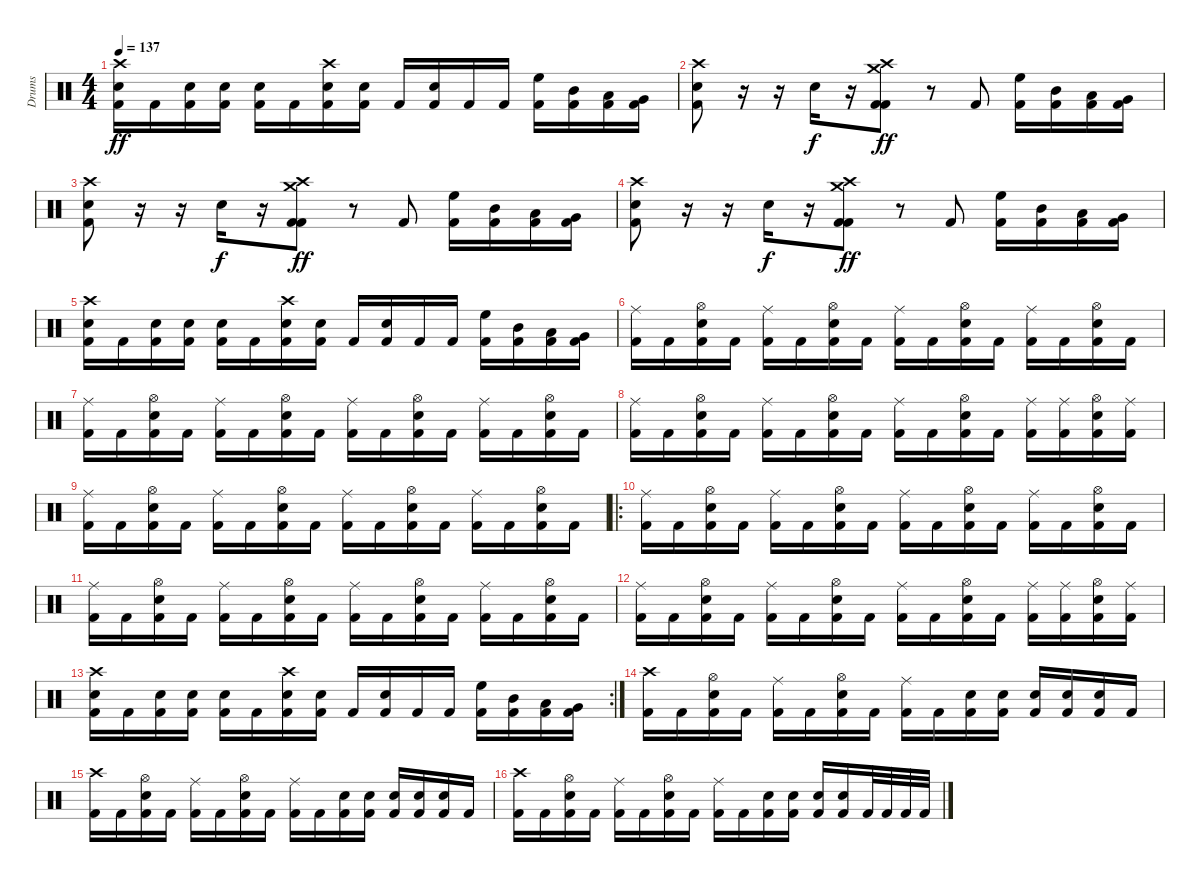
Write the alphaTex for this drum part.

\track ("Drums" "Drums") {instrument percussion}
\staff {score}
\articulation defaults
\ts (4 4)
\tempo 137
\clef neutral
\ks c
("Crash high (hit)" "Electric Snare (hit)" "Kick (hit) 2").16{dy ff} "Kick (hit) 2".16 ("Electric Snare (hit)" "Kick (hit) 2").16 ("Electric Snare (hit)" "Kick (hit) 2").16 ("Electric Snare (hit)" "Kick (hit) 2").16 "Kick (hit) 2".16 ("Crash high (hit)" "Electric Snare (hit)" "Kick (hit) 2").16 ("Electric Snare (hit)" "Kick (hit) 2").16 "Kick (hit) 2".16 ("Electric Snare (hit)" "Kick (hit) 2").16 "Kick (hit) 2".16 "Kick (hit) 2".16 ("High Floor Tom (hit)" "Kick (hit) 2").16 ("Mid Tom (hit)" "Kick (hit) 2").16 ("Low Tom (hit)" "Kick (hit) 2").16 ("Very Low Tom (hit)" "Kick (hit) 2").16 |
("Crash high (hit)" "Electric Snare (hit)" "Kick (hit) 2").8 r.16 r.16 "Electric Snare (hit)".16{dy f} r.16 ("Crash medium (hit)" "Crash high (hit)" "Kick (hit) 2" "Kick (hit) 2").8{dy ff} r.8 "Kick (hit) 2".8 ("High Floor Tom (hit)" "Kick (hit) 2").16 ("Mid Tom (hit)" "Kick (hit) 2").16 ("Low Tom (hit)" "Kick (hit) 2").16 ("Very Low Tom (hit)" "Kick (hit) 2").16 |
("Crash high (hit)" "Electric Snare (hit)" "Kick (hit) 2").8 r.16 r.16 "Electric Snare (hit)".16{dy f} r.16 ("Crash medium (hit)" "Crash high (hit)" "Kick (hit) 2" "Kick (hit) 2").8{dy ff} r.8 "Kick (hit) 2".8 ("High Floor Tom (hit)" "Kick (hit) 2").16 ("Mid Tom (hit)" "Kick (hit) 2").16 ("Low Tom (hit)" "Kick (hit) 2").16 ("Very Low Tom (hit)" "Kick (hit) 2").16 |
("Crash high (hit)" "Electric Snare (hit)" "Kick (hit) 2").8 r.16 r.16 "Electric Snare (hit)".16{dy f} r.16 ("Crash medium (hit)" "Crash high (hit)" "Kick (hit) 2" "Kick (hit) 2").8{dy ff} r.8 "Kick (hit) 2".8 ("High Floor Tom (hit)" "Kick (hit) 2").16 ("Mid Tom (hit)" "Kick (hit) 2").16 ("Low Tom (hit)" "Kick (hit) 2").16 ("Very Low Tom (hit)" "Kick (hit) 2").16 |
("Crash high (hit)" "Electric Snare (hit)" "Kick (hit) 2").16 "Kick (hit) 2".16 ("Electric Snare (hit)" "Kick (hit) 2").16 ("Electric Snare (hit)" "Kick (hit) 2").16 ("Electric Snare (hit)" "Kick (hit) 2").16 "Kick (hit) 2".16 ("Crash high (hit)" "Electric Snare (hit)" "Kick (hit) 2").16 ("Electric Snare (hit)" "Kick (hit) 2").16 "Kick (hit) 2".16 ("Electric Snare (hit)" "Kick (hit) 2").16 "Kick (hit) 2".16 "Kick (hit) 2".16 ("High Floor Tom (hit)" "Kick (hit) 2").16 ("Mid Tom (hit)" "Kick (hit) 2").16 ("Low Tom (hit)" "Kick (hit) 2").16 ("Very Low Tom (hit)" "Kick (hit) 2").16 |
("Ride (middle)" "Kick (hit) 2").16 "Kick (hit) 2".16 ("Hi-Hat (open)" "Electric Snare (hit)" "Kick (hit) 2").16 "Kick (hit) 2".16 ("Ride (middle)" "Kick (hit) 2").16 "Kick (hit) 2".16 ("Hi-Hat (open)" "Electric Snare (hit)" "Kick (hit) 2").16 "Kick (hit) 2".16 ("Ride (middle)" "Kick (hit) 2").16 "Kick (hit) 2".16 ("Hi-Hat (open)" "Electric Snare (hit)" "Kick (hit) 2").16 "Kick (hit) 2".16 ("Ride (middle)" "Kick (hit) 2").16 "Kick (hit) 2".16 ("Hi-Hat (open)" "Electric Snare (hit)" "Kick (hit) 2").16 "Kick (hit) 2".16 |
("Ride (middle)" "Kick (hit) 2").16 "Kick (hit) 2".16 ("Hi-Hat (open)" "Electric Snare (hit)" "Kick (hit) 2").16 "Kick (hit) 2".16 ("Ride (middle)" "Kick (hit) 2").16 "Kick (hit) 2".16 ("Hi-Hat (open)" "Electric Snare (hit)" "Kick (hit) 2").16 "Kick (hit) 2".16 ("Ride (middle)" "Kick (hit) 2").16 "Kick (hit) 2".16 ("Hi-Hat (open)" "Electric Snare (hit)" "Kick (hit) 2").16 "Kick (hit) 2".16 ("Ride (middle)" "Kick (hit) 2").16 "Kick (hit) 2".16 ("Hi-Hat (open)" "Electric Snare (hit)" "Kick (hit) 2").16 "Kick (hit) 2".16 |
("Ride (middle)" "Kick (hit) 2").16 "Kick (hit) 2".16 ("Hi-Hat (open)" "Electric Snare (hit)" "Kick (hit) 2").16 "Kick (hit) 2".16 ("Ride (middle)" "Kick (hit) 2").16 "Kick (hit) 2".16 ("Hi-Hat (open)" "Electric Snare (hit)" "Kick (hit) 2").16 "Kick (hit) 2".16 ("Ride (middle)" "Kick (hit) 2").16 "Kick (hit) 2".16 ("Hi-Hat (open)" "Electric Snare (hit)" "Kick (hit) 2").16 "Kick (hit) 2".16 ("Ride (middle)" "Kick (hit) 2").16 ("Ride (middle)" "Kick (hit) 2").16 ("Hi-Hat (open)" "Electric Snare (hit)" "Kick (hit) 2").16 ("Ride (middle)" "Kick (hit) 2").16 |
("Ride (middle)" "Kick (hit) 2").16 "Kick (hit) 2".16 ("Hi-Hat (open)" "Electric Snare (hit)" "Kick (hit) 2").16 "Kick (hit) 2".16 ("Ride (middle)" "Kick (hit) 2").16 "Kick (hit) 2".16 ("Hi-Hat (open)" "Electric Snare (hit)" "Kick (hit) 2").16 "Kick (hit) 2".16 ("Ride (middle)" "Kick (hit) 2").16 "Kick (hit) 2".16 ("Hi-Hat (open)" "Electric Snare (hit)" "Kick (hit) 2").16 "Kick (hit) 2".16 ("Ride (middle)" "Kick (hit) 2").16 "Kick (hit) 2".16 ("Hi-Hat (open)" "Electric Snare (hit)" "Kick (hit) 2").16 "Kick (hit) 2".16 |
\ro
("Ride (middle)" "Kick (hit) 2").16 "Kick (hit) 2".16 ("Hi-Hat (open)" "Electric Snare (hit)" "Kick (hit) 2").16 "Kick (hit) 2".16 ("Ride (middle)" "Kick (hit) 2").16 "Kick (hit) 2".16 ("Hi-Hat (open)" "Electric Snare (hit)" "Kick (hit) 2").16 "Kick (hit) 2".16 ("Ride (middle)" "Kick (hit) 2").16 "Kick (hit) 2".16 ("Hi-Hat (open)" "Electric Snare (hit)" "Kick (hit) 2").16 "Kick (hit) 2".16 ("Ride (middle)" "Kick (hit) 2").16 "Kick (hit) 2".16 ("Hi-Hat (open)" "Electric Snare (hit)" "Kick (hit) 2").16 "Kick (hit) 2".16 |
("Ride (middle)" "Kick (hit) 2").16 "Kick (hit) 2".16 ("Hi-Hat (open)" "Electric Snare (hit)" "Kick (hit) 2").16 "Kick (hit) 2".16 ("Ride (middle)" "Kick (hit) 2").16 "Kick (hit) 2".16 ("Hi-Hat (open)" "Electric Snare (hit)" "Kick (hit) 2").16 "Kick (hit) 2".16 ("Ride (middle)" "Kick (hit) 2").16 "Kick (hit) 2".16 ("Hi-Hat (open)" "Electric Snare (hit)" "Kick (hit) 2").16 "Kick (hit) 2".16 ("Ride (middle)" "Kick (hit) 2").16 "Kick (hit) 2".16 ("Hi-Hat (open)" "Electric Snare (hit)" "Kick (hit) 2").16 "Kick (hit) 2".16 |
("Ride (middle)" "Kick (hit) 2").16 "Kick (hit) 2".16 ("Hi-Hat (open)" "Electric Snare (hit)" "Kick (hit) 2").16 "Kick (hit) 2".16 ("Ride (middle)" "Kick (hit) 2").16 "Kick (hit) 2".16 ("Hi-Hat (open)" "Electric Snare (hit)" "Kick (hit) 2").16 "Kick (hit) 2".16 ("Ride (middle)" "Kick (hit) 2").16 "Kick (hit) 2".16 ("Hi-Hat (open)" "Electric Snare (hit)" "Kick (hit) 2").16 "Kick (hit) 2".16 ("Ride (middle)" "Kick (hit) 2").16 ("Ride (middle)" "Kick (hit) 2").16 ("Hi-Hat (open)" "Electric Snare (hit)" "Kick (hit) 2").16 ("Ride (middle)" "Kick (hit) 2").16 |
\rc 2
("Crash high (hit)" "Electric Snare (hit)" "Kick (hit) 2").16 "Kick (hit) 2".16 ("Electric Snare (hit)" "Kick (hit) 2").16 ("Electric Snare (hit)" "Kick (hit) 2").16 ("Electric Snare (hit)" "Kick (hit) 2").16 "Kick (hit) 2".16 ("Crash high (hit)" "Electric Snare (hit)" "Kick (hit) 2").16 ("Electric Snare (hit)" "Kick (hit) 2").16 "Kick (hit) 2".16 ("Electric Snare (hit)" "Kick (hit) 2").16 "Kick (hit) 2".16 "Kick (hit) 2".16 ("High Floor Tom (hit)" "Kick (hit) 2").16 ("Mid Tom (hit)" "Kick (hit) 2").16 ("Low Tom (hit)" "Kick (hit) 2").16 ("Very Low Tom (hit)" "Kick (hit) 2").16 |
("Crash high (hit)" "Kick (hit) 2").16 "Kick (hit) 2".16 ("Hi-Hat (open)" "Electric Snare (hit)" "Kick (hit) 2").16 "Kick (hit) 2".16 ("Ride (middle)" "Kick (hit) 2").16 "Kick (hit) 2".16 ("Hi-Hat (open)" "Electric Snare (hit)" "Kick (hit) 2").16 "Kick (hit) 2".16 ("Ride (middle)" "Kick (hit) 2").16 "Kick (hit) 2".16 ("Electric Snare (hit)" "Kick (hit) 2").16 ("Electric Snare (hit)" "Kick (hit) 2").16 ("Electric Snare (hit)" "Kick (hit) 2").16 ("Electric Snare (hit)" "Kick (hit) 2").16 ("Electric Snare (hit)" "Kick (hit) 2").16 "Kick (hit) 2".16 |
("Crash high (hit)" "Kick (hit) 2").16 "Kick (hit) 2".16 ("Hi-Hat (open)" "Electric Snare (hit)" "Kick (hit) 2").16 "Kick (hit) 2".16 ("Ride (middle)" "Kick (hit) 2").16 "Kick (hit) 2".16 ("Hi-Hat (open)" "Electric Snare (hit)" "Kick (hit) 2").16 "Kick (hit) 2".16 ("Ride (middle)" "Kick (hit) 2").16 "Kick (hit) 2".16 ("Electric Snare (hit)" "Kick (hit) 2").16 ("Electric Snare (hit)" "Kick (hit) 2").16 ("Electric Snare (hit)" "Kick (hit) 2").16 ("Electric Snare (hit)" "Kick (hit) 2").16 ("Electric Snare (hit)" "Kick (hit) 2").16 "Kick (hit) 2".16 |
("Crash high (hit)" "Kick (hit) 2").16 "Kick (hit) 2".16 ("Hi-Hat (open)" "Electric Snare (hit)" "Kick (hit) 2").16 "Kick (hit) 2".16 ("Ride (middle)" "Kick (hit) 2").16 "Kick (hit) 2".16 ("Hi-Hat (open)" "Electric Snare (hit)" "Kick (hit) 2").16 "Kick (hit) 2".16 ("Ride (middle)" "Kick (hit) 2").16 "Kick (hit) 2".16 ("Electric Snare (hit)" "Kick (hit) 2").16 ("Electric Snare (hit)" "Kick (hit) 2").16 ("Electric Snare (hit)" "Kick (hit) 2").16 ("Electric Snare (hit)" "Kick (hit) 2").16 "Kick (hit) 2".32 "Kick (hit) 2".32 "Kick (hit) 2".32 "Kick (hit) 2".32
